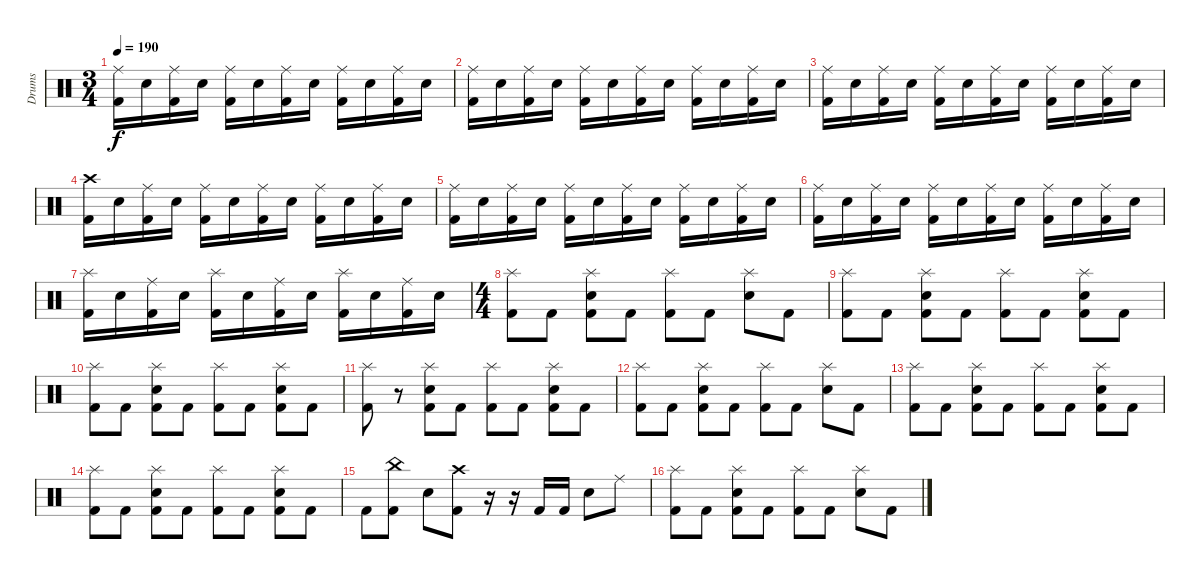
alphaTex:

\track ("Drums" "Drums") {instrument percussion}
\staff {score}
\articulation defaults
\ts (3 4)
\tempo 190
\clef neutral
\ks c
("Ride (middle)" "Kick (hit) 2").16{dy f} "Snare (hit) 2".16 ("Ride (middle)" "Kick (hit) 2").16 "Snare (hit) 2".16 ("Ride (middle)" "Kick (hit) 2").16 "Snare (hit) 2".16 ("Ride (middle)" "Kick (hit) 2").16 "Snare (hit) 2".16 ("Ride (middle)" "Kick (hit) 2").16 "Snare (hit) 2".16 ("Ride (middle)" "Kick (hit) 2").16 "Snare (hit) 2".16 |
("Ride (middle)" "Kick (hit) 2").16 "Snare (hit) 2".16 ("Ride (middle)" "Kick (hit) 2").16 "Snare (hit) 2".16 ("Ride (middle)" "Kick (hit) 2").16 "Snare (hit) 2".16 ("Ride (middle)" "Kick (hit) 2").16 "Snare (hit) 2".16 ("Ride (middle)" "Kick (hit) 2").16 "Snare (hit) 2".16 ("Ride (middle)" "Kick (hit) 2").16 "Snare (hit) 2".16 |
("Ride (middle)" "Kick (hit) 2").16 "Snare (hit) 2".16 ("Ride (middle)" "Kick (hit) 2").16 "Snare (hit) 2".16 ("Ride (middle)" "Kick (hit) 2").16 "Snare (hit) 2".16 ("Ride (middle)" "Kick (hit) 2").16 "Snare (hit) 2".16 ("Ride (middle)" "Kick (hit) 2").16 "Snare (hit) 2".16 ("Ride (middle)" "Kick (hit) 2").16 "Snare (hit) 2".16 |
("Crash high (hit)" "Kick (hit) 2").16 "Snare (hit) 2".16 ("Ride (middle)" "Kick (hit) 2").16 "Snare (hit) 2".16 ("Ride (middle)" "Kick (hit) 2").16 "Snare (hit) 2".16 ("Ride (middle)" "Kick (hit) 2").16 "Snare (hit) 2".16 ("Ride (middle)" "Kick (hit) 2").16 "Snare (hit) 2".16 ("Ride (middle)" "Kick (hit) 2").16 "Snare (hit) 2".16 |
("Ride (middle)" "Kick (hit) 2").16 "Snare (hit) 2".16 ("Ride (middle)" "Kick (hit) 2").16 "Snare (hit) 2".16 ("Ride (middle)" "Kick (hit) 2").16 "Snare (hit) 2".16 ("Ride (middle)" "Kick (hit) 2").16 "Snare (hit) 2".16 ("Ride (middle)" "Kick (hit) 2").16 "Snare (hit) 2".16 ("Ride (middle)" "Kick (hit) 2").16 "Snare (hit) 2".16 |
("Ride (middle)" "Kick (hit) 2").16 "Snare (hit) 2".16 ("Ride (middle)" "Kick (hit) 2").16 "Snare (hit) 2".16 ("Ride (middle)" "Kick (hit) 2").16 "Snare (hit) 2".16 ("Ride (middle)" "Kick (hit) 2").16 "Snare (hit) 2".16 ("Ride (middle)" "Kick (hit) 2").16 "Snare (hit) 2".16 ("Ride (middle)" "Kick (hit) 2").16 "Snare (hit) 2".16 |
("Splash (hit)" "Kick (hit) 2").16 "Snare (hit) 2".16 ("Ride (middle)" "Kick (hit) 2").16 "Snare (hit) 2".16 ("Splash (hit)" "Kick (hit) 2").16 "Snare (hit) 2".16 ("Ride (middle)" "Kick (hit) 2").16 "Snare (hit) 2".16 ("Splash (hit)" "Kick (hit) 2").16 "Snare (hit) 2".16 ("Ride (middle)" "Kick (hit) 2").16 "Snare (hit) 2".16 |
\ts (4 4)
("Splash (hit)" "Kick (hit) 2").8 "Kick (hit) 2".8 ("Splash (hit)" "Snare (hit) 2" "Kick (hit) 2").8 "Kick (hit) 2".8 ("Splash (hit)" "Kick (hit) 2").8 "Kick (hit) 2".8 ("Splash (hit)" "Snare (hit) 2").8 "Kick (hit) 2".8 |
("Splash (hit)" "Kick (hit) 2").8 "Kick (hit) 2".8 ("Splash (hit)" "Snare (hit) 2" "Kick (hit) 2").8 "Kick (hit) 2".8 ("Splash (hit)" "Kick (hit) 2").8 "Kick (hit) 2".8 ("Splash (hit)" "Snare (hit) 2" "Kick (hit) 2").8 "Kick (hit) 2".8 |
("Splash (hit)" "Kick (hit) 2").8 "Kick (hit) 2".8 ("Splash (hit)" "Snare (hit) 2" "Kick (hit) 2").8 "Kick (hit) 2".8 ("Splash (hit)" "Kick (hit) 2").8 "Kick (hit) 2".8 ("Splash (hit)" "Snare (hit) 2" "Kick (hit) 2").8 "Kick (hit) 2".8 |
("Splash (hit)" "Kick (hit) 2").8 r.8 ("Splash (hit)" "Snare (hit) 2" "Kick (hit) 2").8 "Kick (hit) 2".8 ("Splash (hit)" "Kick (hit) 2").8 "Kick (hit) 2".8 ("Splash (hit)" "Snare (hit) 2" "Kick (hit) 2").8 "Kick (hit) 2".8 |
("Splash (hit)" "Kick (hit) 2").8 "Kick (hit) 2".8 ("Splash (hit)" "Snare (hit) 2" "Kick (hit) 2").8 "Kick (hit) 2".8 ("Splash (hit)" "Kick (hit) 2").8 "Kick (hit) 2".8 ("Splash (hit)" "Snare (hit) 2").8 "Kick (hit) 2".8 |
("Splash (hit)" "Kick (hit) 2").8 "Kick (hit) 2".8 ("Splash (hit)" "Snare (hit) 2" "Kick (hit) 2").8 "Kick (hit) 2".8 ("Splash (hit)" "Kick (hit) 2").8 "Kick (hit) 2".8 ("Splash (hit)" "Snare (hit) 2" "Kick (hit) 2").8 "Kick (hit) 2".8 |
("Splash (hit)" "Kick (hit) 2").8 "Kick (hit) 2".8 ("Splash (hit)" "Snare (hit) 2" "Kick (hit) 2").8 "Kick (hit) 2".8 ("Splash (hit)" "Kick (hit) 2").8 "Kick (hit) 2".8 ("Splash (hit)" "Snare (hit) 2" "Kick (hit) 2").8 "Kick (hit) 2".8 |
"Kick (hit) 2".8 ("China (hit)" "Kick (hit) 2").8 "Snare (hit) 2".8 ("Crash high (hit)" "Kick (hit) 2").8 r.16 r.16 "Kick (hit) 2".16 "Kick (hit) 2".16 "Snare (hit) 2".8 "Ride (middle)".8 |
("Splash (hit)" "Kick (hit) 2").8 "Kick (hit) 2".8 ("Splash (hit)" "Snare (hit) 2" "Kick (hit) 2").8 "Kick (hit) 2".8 ("Splash (hit)" "Kick (hit) 2").8 "Kick (hit) 2".8 ("Splash (hit)" "Snare (hit) 2").8 "Kick (hit) 2".8
